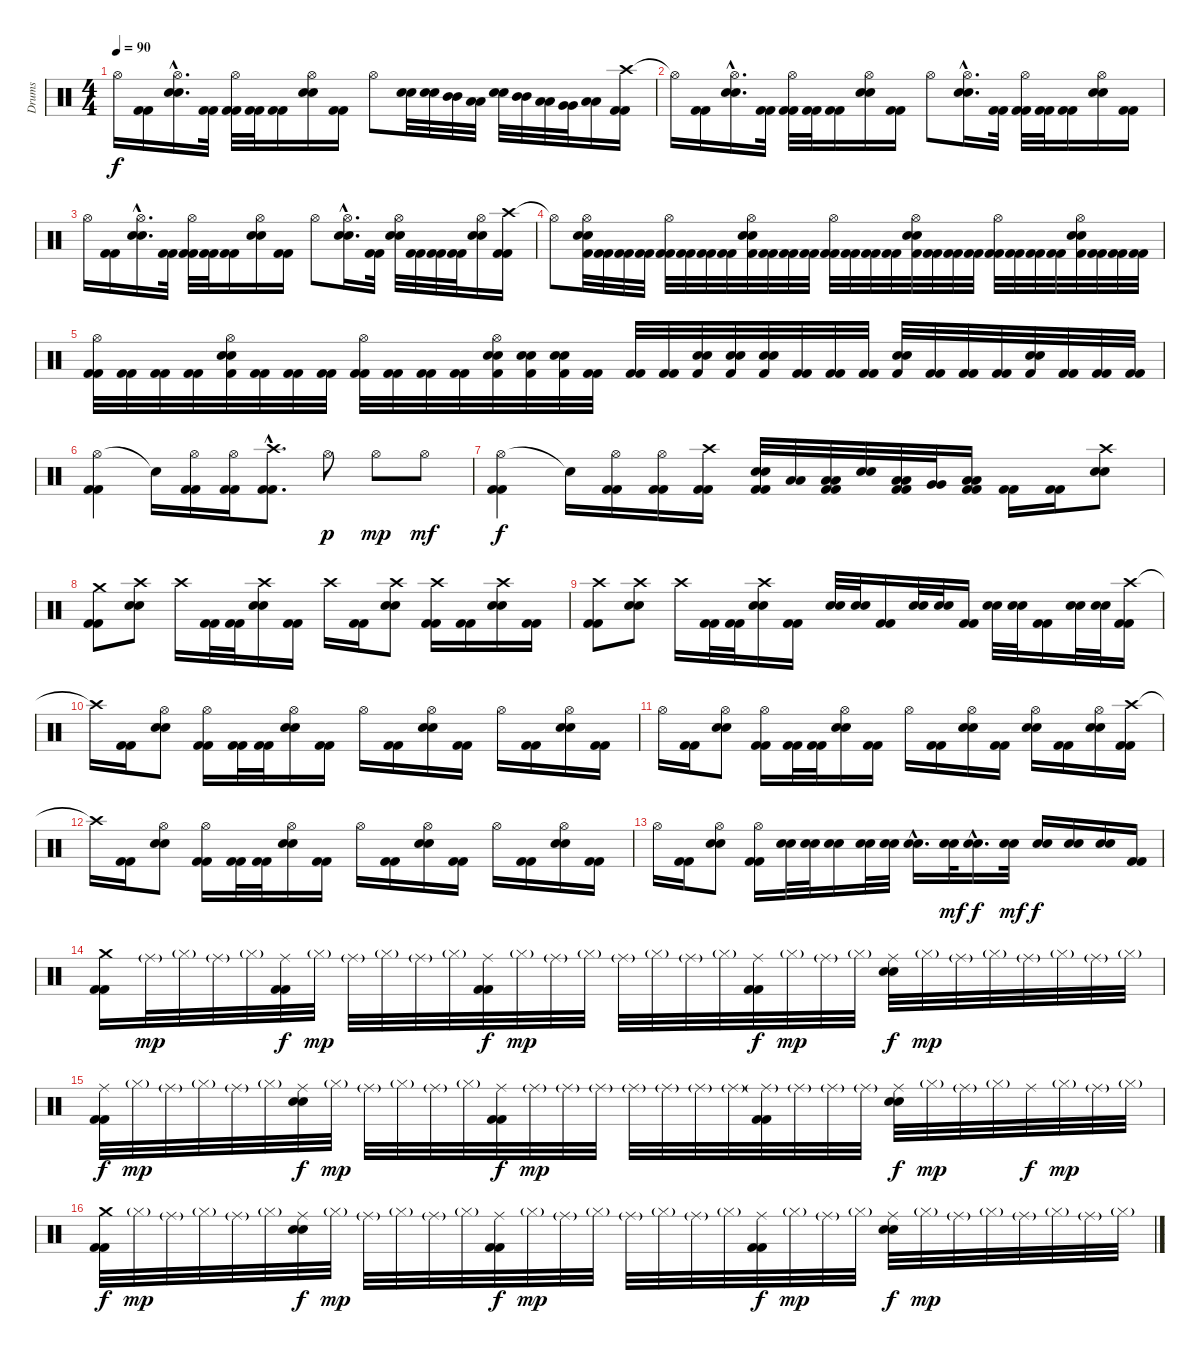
\track ("Drums" "Drums") {instrument percussion}
\staff {score}
\articulation defaults
\ts (4 4)
\tempo 90
\clef neutral
\ks c "Hi-Hat (open)".16{dy f}
("Kick (hit) 2" "Kick (hit) 2").16 ("Hi-Hat (open)"{hac} "Electric Snare (hit)"{hac} "Snare (hit) 2"{hac}).16{d} ("Kick (hit) 2" "Kick (hit) 2").32 ("Hi-Hat (open)" "Kick (hit) 2" "Kick (hit) 2").32 ("Kick (hit) 2" "Kick (hit) 2").32 ("Kick (hit) 2" "Kick (hit) 2").16 ("Hi-Hat (open)" "Electric Snare (hit)" "Snare (hit) 2").16 ("Kick (hit) 2" "Kick (hit) 2").16 "Hi-Hat (open)".8 ("Electric Snare (hit)" "Snare (hit) 2").32 ("Electric Snare (hit)" "Snare (hit) 2").32 ("Mid Tom (hit)" "Mid Tom (hit)").32 ("Low Tom (hit)" "Low Tom (hit)").32 ("Electric Snare (hit)" "Snare (hit) 2").32 ("Mid Tom (hit)" "Mid Tom (hit)").32 ("Low Tom (hit)" "Low Tom (hit)").32 ("Very Low Tom (hit)" "Very Low Tom (hit)").32 ("Low Floor Tom (hit)" "Low Floor Tom (hit)").16 ("Crash high (hit)" "Kick (hit) 2" "Kick (hit) 2").16 |
"Hi-Hat (open)"{t}.16 ("Kick (hit) 2" "Kick (hit) 2").16 ("Hi-Hat (open)"{hac} "Electric Snare (hit)"{hac} "Snare (hit) 2"{hac}).16{d} ("Kick (hit) 2" "Kick (hit) 2").32 ("Hi-Hat (open)" "Kick (hit) 2" "Kick (hit) 2").32 ("Kick (hit) 2" "Kick (hit) 2").32 ("Kick (hit) 2" "Kick (hit) 2").16 ("Hi-Hat (open)" "Electric Snare (hit)" "Snare (hit) 2").16 ("Kick (hit) 2" "Kick (hit) 2").16 "Hi-Hat (open)".8 ("Hi-Hat (open)"{hac} "Electric Snare (hit)"{hac} "Snare (hit) 2"{hac}).16{d} ("Kick (hit) 2" "Kick (hit) 2").32 ("Hi-Hat (open)" "Kick (hit) 2" "Kick (hit) 2").32 ("Kick (hit) 2" "Kick (hit) 2").32 ("Kick (hit) 2" "Kick (hit) 2").16 ("Hi-Hat (open)" "Electric Snare (hit)" "Snare (hit) 2").16 ("Kick (hit) 2" "Kick (hit) 2").16 |
"Hi-Hat (open)".16 ("Kick (hit) 2" "Kick (hit) 2").16 ("Hi-Hat (open)"{hac} "Electric Snare (hit)"{hac} "Snare (hit) 2"{hac}).16{d} ("Kick (hit) 2" "Kick (hit) 2").32 ("Hi-Hat (open)" "Kick (hit) 2" "Kick (hit) 2").32 ("Kick (hit) 2" "Kick (hit) 2").32 ("Kick (hit) 2" "Kick (hit) 2").16 ("Hi-Hat (open)" "Electric Snare (hit)" "Snare (hit) 2").16 ("Kick (hit) 2" "Kick (hit) 2").16 "Hi-Hat (open)".8 ("Hi-Hat (open)"{hac} "Electric Snare (hit)"{hac} "Snare (hit) 2"{hac}).16{d} ("Kick (hit) 2" "Kick (hit) 2").32 ("Hi-Hat (open)" "Electric Snare (hit)" "Snare (hit) 2").32 ("Kick (hit) 2" "Kick (hit) 2").32 ("Kick (hit) 2" "Kick (hit) 2").32 ("Kick (hit) 2" "Kick (hit) 2").32 ("Hi-Hat (open)" "Electric Snare (hit)" "Snare (hit) 2").16 ("Crash high (hit)" "Kick (hit) 2" "Kick (hit) 2").16 |
"Hi-Hat (open)"{t}.8 ("Hi-Hat (open)" "Electric Snare (hit)" "Snare (hit) 2" "Kick (hit) 2").32 ("Kick (hit) 2" "Kick (hit) 2").32 ("Kick (hit) 2" "Kick (hit) 2").32 ("Kick (hit) 2" "Kick (hit) 2").32 ("Hi-Hat (open)" "Kick (hit) 2" "Kick (hit) 2").32 ("Kick (hit) 2" "Kick (hit) 2").32 ("Kick (hit) 2" "Kick (hit) 2").32 ("Kick (hit) 2" "Kick (hit) 2").32 ("Hi-Hat (open)" "Electric Snare (hit)" "Snare (hit) 2" "Kick (hit) 2").32 ("Kick (hit) 2" "Kick (hit) 2").32 ("Kick (hit) 2" "Kick (hit) 2").32 ("Kick (hit) 2" "Kick (hit) 2").32 ("Hi-Hat (open)" "Kick (hit) 2" "Kick (hit) 2").32 ("Kick (hit) 2" "Kick (hit) 2").32 ("Kick (hit) 2" "Kick (hit) 2").32 ("Kick (hit) 2" "Kick (hit) 2").32 ("Hi-Hat (open)" "Electric Snare (hit)" "Snare (hit) 2" "Kick (hit) 2").32 ("Kick (hit) 2" "Kick (hit) 2").32 ("Kick (hit) 2" "Kick (hit) 2").32 ("Kick (hit) 2" "Kick (hit) 2").32 ("Hi-Hat (open)" "Kick (hit) 2" "Kick (hit) 2").32 ("Kick (hit) 2" "Kick (hit) 2").32 ("Kick (hit) 2" "Kick (hit) 2").32 ("Kick (hit) 2" "Kick (hit) 2").32 ("Hi-Hat (open)" "Electric Snare (hit)" "Snare (hit) 2" "Kick (hit) 2").32 ("Kick (hit) 2" "Kick (hit) 2").32 ("Kick (hit) 2" "Kick (hit) 2").32 ("Kick (hit) 2" "Kick (hit) 2").32 |
("Hi-Hat (open)" "Kick (hit) 2" "Kick (hit) 2").32 ("Kick (hit) 2" "Kick (hit) 2").32 ("Kick (hit) 2" "Kick (hit) 2").32 ("Kick (hit) 2" "Kick (hit) 2").32 ("Hi-Hat (open)" "Electric Snare (hit)" "Snare (hit) 2" "Kick (hit) 2").32 ("Kick (hit) 2" "Kick (hit) 2").32 ("Kick (hit) 2" "Kick (hit) 2").32 ("Kick (hit) 2" "Kick (hit) 2").32 ("Hi-Hat (open)" "Kick (hit) 2" "Kick (hit) 2").32 ("Kick (hit) 2" "Kick (hit) 2").32 ("Kick (hit) 2" "Kick (hit) 2").32 ("Kick (hit) 2" "Kick (hit) 2").32 ("Hi-Hat (open)" "Electric Snare (hit)" "Snare (hit) 2" "Kick (hit) 2").32 ("Electric Snare (hit)" "Snare (hit) 2" "Kick (hit) 2").32 ("Electric Snare (hit)" "Snare (hit) 2" "Kick (hit) 2").32 ("Kick (hit) 2" "Kick (hit) 2").32 ("Kick (hit) 2" "Kick (hit) 2").32 ("Kick (hit) 2" "Kick (hit) 2").32 ("Electric Snare (hit)" "Snare (hit) 2" "Kick (hit) 2").32 ("Electric Snare (hit)" "Snare (hit) 2" "Kick (hit) 2").32 ("Electric Snare (hit)" "Snare (hit) 2" "Kick (hit) 2").32 ("Kick (hit) 2" "Kick (hit) 2").32 ("Kick (hit) 2" "Kick (hit) 2").32 ("Kick (hit) 2" "Kick (hit) 2").32 ("Electric Snare (hit)" "Snare (hit) 2" "Kick (hit) 2").32 ("Kick (hit) 2" "Kick (hit) 2").32 ("Kick (hit) 2" "Kick (hit) 2").32 ("Kick (hit) 2" "Kick (hit) 2").32 ("Electric Snare (hit)" "Snare (hit) 2" "Kick (hit) 2").32 ("Kick (hit) 2" "Kick (hit) 2").32 ("Kick (hit) 2" "Kick (hit) 2").32 ("Kick (hit) 2" "Kick (hit) 2").32 |
("Hi-Hat (open)" "Kick (hit) 2" "Kick (hit) 2").4 "Snare (hit)"{t}.16 ("Hi-Hat (open)" "Kick (hit) 2" "Kick (hit) 2").16 ("Hi-Hat (open)" "Kick (hit) 2" "Kick (hit) 2").16 ("Crash high (hit)"{hac} "Kick (hit) 2"{hac} "Kick (hit) 2"{hac}).8{d} "Hi-Hat (open)".8{dy p} "Hi-Hat (open)".8{dy mp} "Hi-Hat (open)".8{dy mf} |
("Hi-Hat (open)" "Kick (hit) 2" "Kick (hit) 2").4{dy f} "Snare (hit)"{t}.16 ("Hi-Hat (open)" "Kick (hit) 2" "Kick (hit) 2").16 ("Hi-Hat (open)" "Kick (hit) 2" "Kick (hit) 2").16 ("Crash high (hit)" "Kick (hit) 2" "Kick (hit) 2").16 ("Electric Snare (hit)" "Snare (hit) 2" "Kick (hit) 2" "Kick (hit) 2").32 ("Low Tom (hit)" "Low Tom (hit)").32 ("Low Floor Tom (hit)" "Low Floor Tom (hit)" "Kick (hit) 2" "Kick (hit) 2").32 ("Electric Snare (hit)" "Snare (hit) 2").32 ("Low Tom (hit)" "Low Tom (hit)" "Kick (hit) 2" "Kick (hit) 2").32 ("Very Low Tom (hit)" "Very Low Tom (hit)").32 ("Low Floor Tom (hit)" "Low Floor Tom (hit)" "Kick (hit) 2" "Kick (hit) 2").16 ("Kick (hit) 2" "Kick (hit) 2").16 ("Kick (hit) 2" "Kick (hit) 2").16 ("Crash high (hit)" "Electric Snare (hit)" "Snare (hit) 2").8 |
("Crash medium (hit)" "Kick (hit) 2" "Kick (hit) 2").8 ("Crash high (hit)" "Electric Snare (hit)" "Snare (hit) 2").8 "Crash high (hit)".16 ("Kick (hit) 2" "Kick (hit) 2").32 ("Kick (hit) 2" "Kick (hit) 2").32 ("Crash high (hit)" "Electric Snare (hit)" "Snare (hit) 2").16 ("Kick (hit) 2" "Kick (hit) 2").16 "Crash high (hit)".16 ("Kick (hit) 2" "Kick (hit) 2").16 ("Crash high (hit)" "Electric Snare (hit)" "Snare (hit) 2").8 ("Crash high (hit)" "Kick (hit) 2" "Kick (hit) 2").16 ("Kick (hit) 2" "Kick (hit) 2").16 ("Crash high (hit)" "Electric Snare (hit)" "Snare (hit) 2").16 ("Kick (hit) 2" "Kick (hit) 2").16 |
("Crash high (hit)" "Kick (hit) 2" "Kick (hit) 2").8 ("Crash high (hit)" "Electric Snare (hit)" "Snare (hit) 2").8 "Crash high (hit)".16 ("Kick (hit) 2" "Kick (hit) 2").32 ("Kick (hit) 2" "Kick (hit) 2").32 ("Crash high (hit)" "Electric Snare (hit)" "Snare (hit) 2").16 ("Kick (hit) 2" "Kick (hit) 2").16 ("Electric Snare (hit)" "Snare (hit) 2").32 ("Electric Snare (hit)" "Snare (hit) 2").32 ("Kick (hit) 2" "Kick (hit) 2").16 ("Electric Snare (hit)" "Snare (hit) 2").32 ("Electric Snare (hit)" "Snare (hit) 2").32 ("Kick (hit) 2" "Kick (hit) 2").16 ("Electric Snare (hit)" "Snare (hit) 2").32 ("Electric Snare (hit)" "Snare (hit) 2").32 ("Kick (hit) 2" "Kick (hit) 2").16 ("Electric Snare (hit)" "Snare (hit) 2").32 ("Electric Snare (hit)" "Snare (hit) 2").32 ("Crash high (hit)" "Kick (hit) 2" "Kick (hit) 2").16 |
"Crash high (hit)"{t}.16 ("Kick (hit) 2" "Kick (hit) 2").16 ("Hi-Hat (open)" "Electric Snare (hit)" "Snare (hit) 2").8 ("Hi-Hat (open)" "Kick (hit) 2" "Kick (hit) 2").16 ("Kick (hit) 2" "Kick (hit) 2").32 ("Kick (hit) 2" "Kick (hit) 2").32 ("Hi-Hat (open)" "Electric Snare (hit)" "Snare (hit) 2").16 ("Kick (hit) 2" "Kick (hit) 2").16 "Hi-Hat (open)".16 ("Kick (hit) 2" "Kick (hit) 2").16 ("Hi-Hat (open)" "Electric Snare (hit)" "Snare (hit) 2").16 ("Kick (hit) 2" "Kick (hit) 2").16 "Hi-Hat (open)".16 ("Kick (hit) 2" "Kick (hit) 2").16 ("Hi-Hat (open)" "Electric Snare (hit)" "Snare (hit) 2").16 ("Kick (hit) 2" "Kick (hit) 2").16 |
"Hi-Hat (open)".16 ("Kick (hit) 2" "Kick (hit) 2").16 ("Hi-Hat (open)" "Electric Snare (hit)" "Snare (hit) 2").8 ("Hi-Hat (open)" "Kick (hit) 2" "Kick (hit) 2").16 ("Kick (hit) 2" "Kick (hit) 2").32 ("Kick (hit) 2" "Kick (hit) 2").32 ("Hi-Hat (open)" "Electric Snare (hit)" "Snare (hit) 2").16 ("Kick (hit) 2" "Kick (hit) 2").16 "Hi-Hat (open)".16 ("Kick (hit) 2" "Kick (hit) 2").16 ("Hi-Hat (open)" "Electric Snare (hit)" "Snare (hit) 2").16 ("Kick (hit) 2" "Kick (hit) 2").16 ("Hi-Hat (open)" "Electric Snare (hit)" "Snare (hit) 2").16 ("Kick (hit) 2" "Kick (hit) 2").16 ("Hi-Hat (open)" "Electric Snare (hit)" "Snare (hit) 2").16 ("Crash high (hit)" "Kick (hit) 2" "Kick (hit) 2").16 |
"Crash high (hit)"{t}.16 ("Kick (hit) 2" "Kick (hit) 2").16 ("Hi-Hat (open)" "Electric Snare (hit)" "Snare (hit) 2").8 ("Hi-Hat (open)" "Kick (hit) 2" "Kick (hit) 2").16 ("Kick (hit) 2" "Kick (hit) 2").32 ("Kick (hit) 2" "Kick (hit) 2").32 ("Hi-Hat (open)" "Electric Snare (hit)" "Snare (hit) 2").16 ("Kick (hit) 2" "Kick (hit) 2").16 "Hi-Hat (open)".16 ("Kick (hit) 2" "Kick (hit) 2").16 ("Hi-Hat (open)" "Electric Snare (hit)" "Snare (hit) 2").16 ("Kick (hit) 2" "Kick (hit) 2").16 "Hi-Hat (open)".16 ("Kick (hit) 2" "Kick (hit) 2").16 ("Hi-Hat (open)" "Electric Snare (hit)" "Snare (hit) 2").16 ("Kick (hit) 2" "Kick (hit) 2").16 |
"Hi-Hat (open)".16 ("Kick (hit) 2" "Kick (hit) 2").16 ("Hi-Hat (open)" "Electric Snare (hit)" "Snare (hit) 2").8 ("Hi-Hat (open)" "Kick (hit) 2" "Kick (hit) 2").16 ("Electric Snare (hit)" "Snare (hit) 2").32 ("Electric Snare (hit)" "Snare (hit) 2").32 ("Electric Snare (hit)" "Snare (hit) 2").16 ("Electric Snare (hit)" "Snare (hit) 2").32 ("Electric Snare (hit)" "Snare (hit) 2").32 ("Electric Snare (hit)"{hac} "Snare (hit) 2"{hac}).16{d} ("Electric Snare (hit)" "Snare (hit) 2").32{dy mf} ("Electric Snare (hit)"{hac} "Snare (hit) 2"{hac}).16{d dy f} ("Electric Snare (hit)" "Snare (hit) 2").32{dy mf} ("Electric Snare (hit)" "Snare (hit) 2").16{dy f} ("Electric Snare (hit)" "Snare (hit) 2").16 ("Electric Snare (hit)" "Snare (hit) 2").16 ("Kick (hit) 2" "Kick (hit) 2").16 |
("Crash medium (hit)" "Kick (hit) 2" "Kick (hit) 2").16 "Ride (middle)"{g}.32{dy mp} "Hi-Hat (closed)"{g}.32 "Ride (middle)"{g}.32 "Hi-Hat (closed)"{g}.32 ("Ride (middle)" "Kick (hit) 2" "Kick (hit) 2").32{dy f} "Hi-Hat (closed)"{g}.32{dy mp} "Ride (middle)"{g}.32 "Hi-Hat (closed)"{g}.32 "Ride (middle)"{g}.32 "Hi-Hat (closed)"{g}.32 ("Ride (middle)" "Kick (hit) 2" "Kick (hit) 2").32{dy f} "Hi-Hat (closed)"{g}.32{dy mp} "Ride (middle)"{g}.32 "Hi-Hat (closed)"{g}.32 "Ride (middle)"{g}.32 "Hi-Hat (closed)"{g}.32 "Ride (middle)"{g}.32 "Hi-Hat (closed)"{g}.32 ("Ride (middle)" "Kick (hit) 2" "Kick (hit) 2").32{dy f} "Hi-Hat (closed)"{g}.32{dy mp} "Ride (middle)"{g}.32 "Hi-Hat (closed)"{g}.32 ("Ride (middle)" "Electric Snare (hit)" "Snare (hit) 2").32{dy f} "Hi-Hat (closed)"{g}.32{dy mp} "Ride (middle)"{g}.32 "Hi-Hat (closed)"{g}.32 "Ride (middle)"{g}.32 "Hi-Hat (closed)"{g}.32 "Ride (middle)"{g}.32 "Hi-Hat (closed)"{g}.32 |
("Ride (middle)" "Kick (hit) 2" "Kick (hit) 2").32{dy f} "Hi-Hat (closed)"{g}.32{dy mp} "Ride (middle)"{g}.32 "Hi-Hat (closed)"{g}.32 "Ride (middle)"{g}.32 "Hi-Hat (closed)"{g}.32 ("Ride (middle)" "Electric Snare (hit)" "Snare (hit) 2").32{dy f} "Hi-Hat (closed)"{g}.32{dy mp} "Ride (middle)"{g}.32 "Hi-Hat (closed)"{g}.32 "Ride (middle)"{g}.32 "Hi-Hat (closed)"{g}.32 ("Ride (middle)" "Kick (hit) 2" "Kick (hit) 2").32{dy f} "Ride (middle)"{g}.32{dy mp} "Ride (middle)"{g}.32 "Ride (middle)"{g}.32 "Ride (middle)"{g}.32 "Ride (middle)"{g}.32 "Ride (middle)"{g}.32 "Ride (middle)"{g}.32 ("Ride (middle)"{g} "Kick (hit) 2" "Kick (hit) 2").32 "Ride (middle)"{g}.32 "Ride (middle)"{g}.32 "Ride (middle)"{g}.32 ("Ride (middle)" "Electric Snare (hit)" "Snare (hit) 2").32{dy f} "Hi-Hat (closed)"{g}.32{dy mp} "Ride (middle)"{g}.32 "Hi-Hat (closed)"{g}.32 "Ride (middle)".32{dy f} "Hi-Hat (closed)"{g}.32{dy mp} "Ride (middle)"{g}.32 "Hi-Hat (closed)"{g}.32 |
("Crash medium (hit)" "Kick (hit) 2" "Kick (hit) 2").32{dy f} "Hi-Hat (closed)"{g}.32{dy mp} "Ride (middle)"{g}.32 "Hi-Hat (closed)"{g}.32 "Ride (middle)"{g}.32 "Hi-Hat (closed)"{g}.32 ("Ride (middle)" "Electric Snare (hit)" "Snare (hit) 2").32{dy f} "Hi-Hat (closed)"{g}.32{dy mp} "Ride (middle)"{g}.32 "Hi-Hat (closed)"{g}.32 "Ride (middle)"{g}.32 "Hi-Hat (closed)"{g}.32 ("Ride (middle)" "Kick (hit) 2" "Kick (hit) 2").32{dy f} "Hi-Hat (closed)"{g}.32{dy mp} "Ride (middle)"{g}.32 "Hi-Hat (closed)"{g}.32 "Ride (middle)"{g}.32 "Hi-Hat (closed)"{g}.32 "Ride (middle)"{g}.32 "Hi-Hat (closed)"{g}.32 ("Ride (middle)" "Kick (hit) 2" "Kick (hit) 2").32{dy f} "Hi-Hat (closed)"{g}.32{dy mp} "Ride (middle)"{g}.32 "Hi-Hat (closed)"{g}.32 ("Ride (middle)" "Electric Snare (hit)" "Snare (hit) 2").32{dy f} "Hi-Hat (closed)"{g}.32{dy mp} "Ride (middle)"{g}.32 "Hi-Hat (closed)"{g}.32 "Ride (middle)"{g}.32 "Hi-Hat (closed)"{g}.32 "Ride (middle)"{g}.32 "Hi-Hat (closed)"{g}.32
